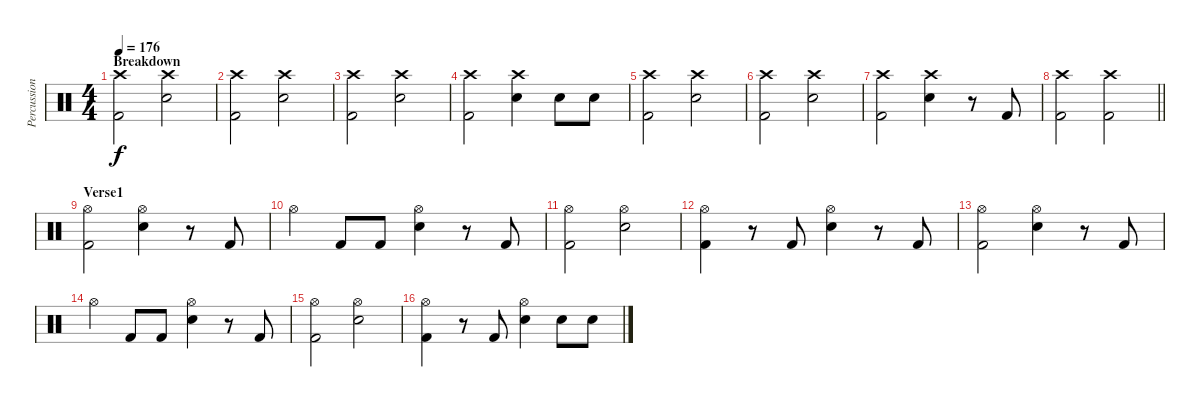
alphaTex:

\track ("Percussion" "Percussion") {instrument percussion}
\staff {score}
\articulation defaults
\ts (4 4)
\section ("" "Breakdown")
\tempo 176
\clef neutral
\ks c
("Crash high (hit)" "Kick (hit) 2").2{dy f} ("Crash high (hit)" "Snare (hit) 2").2 |
("Crash high (hit)" "Kick (hit) 2").2 ("Crash high (hit)" "Snare (hit) 2").2 |
("Crash high (hit)" "Kick (hit) 2").2 ("Crash high (hit)" "Snare (hit) 2").2 |
("Crash high (hit)" "Kick (hit) 2").2 ("Crash high (hit)" "Snare (hit) 2").4 "Snare (hit) 2".8 "Snare (hit) 2".8 |
("Crash high (hit)" "Kick (hit) 2").2 ("Crash high (hit)" "Snare (hit) 2").2 |
("Crash high (hit)" "Kick (hit) 2").2 ("Crash high (hit)" "Snare (hit) 2").2 |
("Crash high (hit)" "Kick (hit) 2").2 ("Crash high (hit)" "Snare (hit) 2").4 r.8 "Kick (hit) 2".8 |
\barLineRight lightlight
("Crash high (hit)" "Kick (hit) 2").2 ("Crash high (hit)" "Kick (hit) 2").2 |
\section ("" "Verse1")
("Hi-Hat (open)" "Kick (hit) 2").2 ("Hi-Hat (open)" "Snare (hit) 2").4 r.8 "Kick (hit) 2".8 |
"Hi-Hat (open)".4 "Kick (hit) 2".8 "Kick (hit) 2".8 ("Hi-Hat (open)" "Snare (hit) 2").4 r.8 "Kick (hit) 2".8 |
("Hi-Hat (open)" "Kick (hit) 2").2 ("Hi-Hat (open)" "Snare (hit) 2").2 |
("Hi-Hat (open)" "Kick (hit) 2").4 r.8 "Kick (hit) 2".8 ("Hi-Hat (open)" "Snare (hit) 2").4 r.8 "Kick (hit) 2".8 |
("Hi-Hat (open)" "Kick (hit) 2").2 ("Hi-Hat (open)" "Snare (hit) 2").4 r.8 "Kick (hit) 2".8 |
"Hi-Hat (open)".4 "Kick (hit) 2".8 "Kick (hit) 2".8 ("Hi-Hat (open)" "Snare (hit) 2").4 r.8 "Kick (hit) 2".8 |
("Hi-Hat (open)" "Kick (hit) 2").2 ("Hi-Hat (open)" "Snare (hit) 2").2 |
("Hi-Hat (open)" "Kick (hit) 2").4 r.8 "Kick (hit) 2".8 ("Hi-Hat (open)" "Snare (hit) 2").4 "Snare (hit) 2".8 "Snare (hit) 2".8
